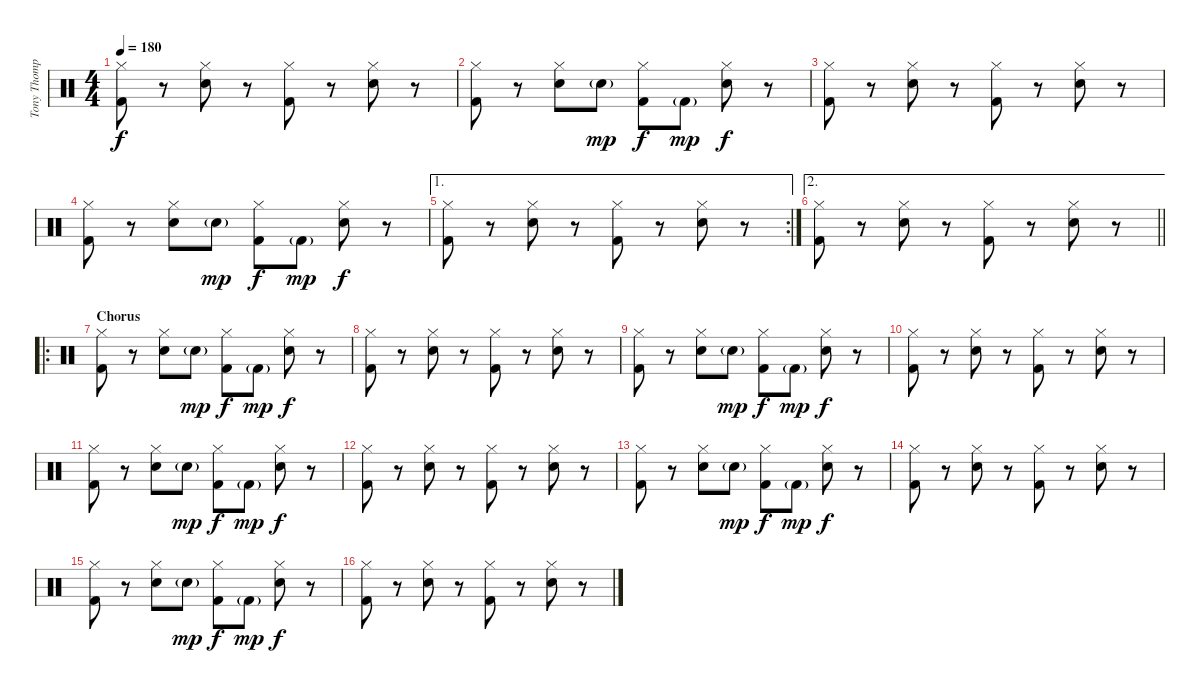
\track ("Tony Thompson (Drums)" "Tony Thomp") {instrument percussion}
\staff {score}
\articulation defaults
\ts (4 4)
\tempo 180
\clef neutral
\ks c
("Hi-Hat (closed)" "Kick (hit) 2").8{dy f} r.8 ("Hi-Hat (closed)" "Electric Snare (hit)").8 r.8 ("Hi-Hat (closed)" "Kick (hit) 2").8 r.8 ("Hi-Hat (closed)" "Electric Snare (hit)").8 r.8 |
("Hi-Hat (closed)" "Kick (hit) 2").8 r.8 ("Hi-Hat (closed)" "Electric Snare (hit)").8 "Electric Snare (hit)"{g}.8{dy mp} ("Hi-Hat (closed)" "Kick (hit) 2").8{dy f} "Kick (hit) 2"{g}.8{dy mp} ("Hi-Hat (closed)" "Electric Snare (hit)").8{dy f} r.8 |
("Hi-Hat (closed)" "Kick (hit) 2").8 r.8 ("Hi-Hat (closed)" "Electric Snare (hit)").8 r.8 ("Hi-Hat (closed)" "Kick (hit) 2").8 r.8 ("Hi-Hat (closed)" "Electric Snare (hit)").8 r.8 |
("Hi-Hat (closed)" "Kick (hit) 2").8 r.8 ("Hi-Hat (closed)" "Electric Snare (hit)").8 "Electric Snare (hit)"{g}.8{dy mp} ("Hi-Hat (closed)" "Kick (hit) 2").8{dy f} "Kick (hit) 2"{g}.8{dy mp} ("Hi-Hat (closed)" "Electric Snare (hit)").8{dy f} r.8 |
\ae 1
\rc 2
("Hi-Hat (closed)" "Kick (hit) 2").8 r.8 ("Hi-Hat (closed)" "Electric Snare (hit)").8 r.8 ("Hi-Hat (closed)" "Kick (hit) 2").8 r.8 ("Hi-Hat (closed)" "Electric Snare (hit)").8 r.8 |
\ae 2
\barLineRight lightlight
("Hi-Hat (closed)" "Kick (hit) 2").8 r.8 ("Hi-Hat (closed)" "Electric Snare (hit)").8 r.8 ("Hi-Hat (closed)" "Kick (hit) 2").8 r.8 ("Hi-Hat (closed)" "Electric Snare (hit)").8 r.8 |
\ro
\section ("" "Chorus")
("Hi-Hat (closed)" "Kick (hit) 2").8 r.8 ("Hi-Hat (closed)" "Electric Snare (hit)").8 "Electric Snare (hit)"{g}.8{dy mp} ("Hi-Hat (closed)" "Kick (hit) 2").8{dy f} "Kick (hit) 2"{g}.8{dy mp} ("Hi-Hat (closed)" "Electric Snare (hit)").8{dy f} r.8 |
("Hi-Hat (closed)" "Kick (hit) 2").8 r.8 ("Hi-Hat (closed)" "Electric Snare (hit)").8 r.8 ("Hi-Hat (closed)" "Kick (hit) 2").8 r.8 ("Hi-Hat (closed)" "Electric Snare (hit)").8 r.8 |
("Hi-Hat (closed)" "Kick (hit) 2").8 r.8 ("Hi-Hat (closed)" "Electric Snare (hit)").8 "Electric Snare (hit)"{g}.8{dy mp} ("Hi-Hat (closed)" "Kick (hit) 2").8{dy f} "Kick (hit) 2"{g}.8{dy mp} ("Hi-Hat (closed)" "Electric Snare (hit)").8{dy f} r.8 |
("Hi-Hat (closed)" "Kick (hit) 2").8 r.8 ("Hi-Hat (closed)" "Electric Snare (hit)").8 r.8 ("Hi-Hat (closed)" "Kick (hit) 2").8 r.8 ("Hi-Hat (closed)" "Electric Snare (hit)").8 r.8 |
("Hi-Hat (closed)" "Kick (hit) 2").8 r.8 ("Hi-Hat (closed)" "Electric Snare (hit)").8 "Electric Snare (hit)"{g}.8{dy mp} ("Hi-Hat (closed)" "Kick (hit) 2").8{dy f} "Kick (hit) 2"{g}.8{dy mp} ("Hi-Hat (closed)" "Electric Snare (hit)").8{dy f} r.8 |
("Hi-Hat (closed)" "Kick (hit) 2").8 r.8 ("Hi-Hat (closed)" "Electric Snare (hit)").8 r.8 ("Hi-Hat (closed)" "Kick (hit) 2").8 r.8 ("Hi-Hat (closed)" "Electric Snare (hit)").8 r.8 |
("Hi-Hat (closed)" "Kick (hit) 2").8 r.8 ("Hi-Hat (closed)" "Electric Snare (hit)").8 "Electric Snare (hit)"{g}.8{dy mp} ("Hi-Hat (closed)" "Kick (hit) 2").8{dy f} "Kick (hit) 2"{g}.8{dy mp} ("Hi-Hat (closed)" "Electric Snare (hit)").8{dy f} r.8 |
("Hi-Hat (closed)" "Kick (hit) 2").8 r.8 ("Hi-Hat (closed)" "Electric Snare (hit)").8 r.8 ("Hi-Hat (closed)" "Kick (hit) 2").8 r.8 ("Hi-Hat (closed)" "Electric Snare (hit)").8 r.8 |
("Hi-Hat (closed)" "Kick (hit) 2").8 r.8 ("Hi-Hat (closed)" "Electric Snare (hit)").8 "Electric Snare (hit)"{g}.8{dy mp} ("Hi-Hat (closed)" "Kick (hit) 2").8{dy f} "Kick (hit) 2"{g}.8{dy mp} ("Hi-Hat (closed)" "Electric Snare (hit)").8{dy f} r.8 |
("Hi-Hat (closed)" "Kick (hit) 2").8 r.8 ("Hi-Hat (closed)" "Electric Snare (hit)").8 r.8 ("Hi-Hat (closed)" "Kick (hit) 2").8 r.8 ("Hi-Hat (closed)" "Electric Snare (hit)").8 r.8
